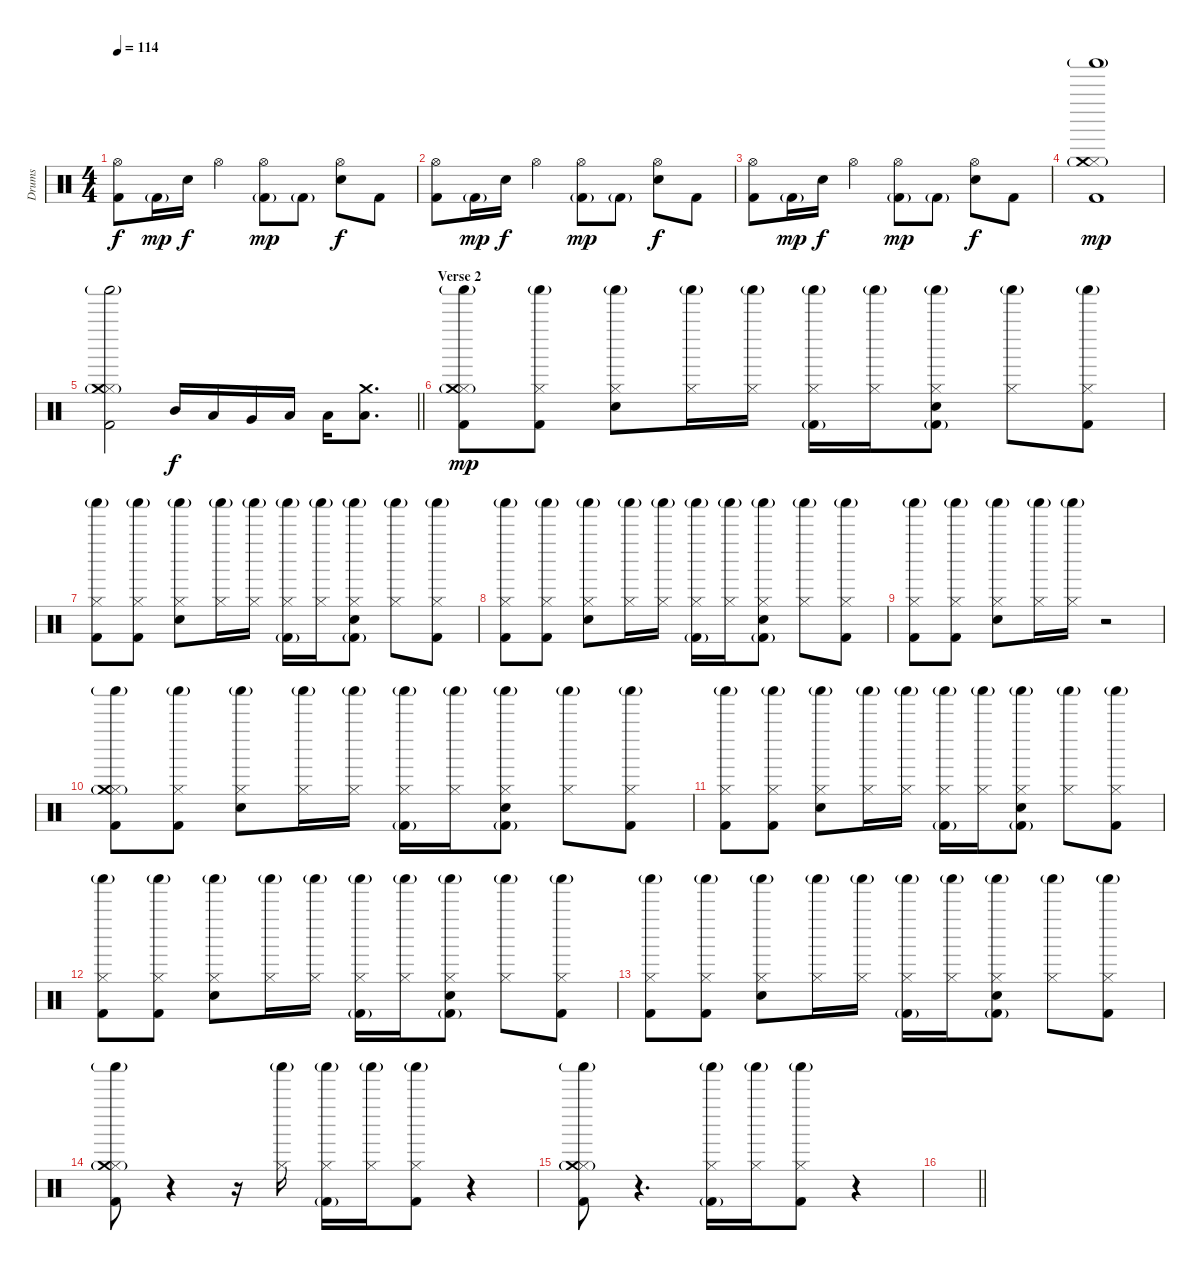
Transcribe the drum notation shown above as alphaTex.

\track ("Drums" "Drums") {instrument percussion}
\staff {score}
\articulation defaults
\ts (4 4)
\tempo 114
\clef neutral
\ks c
("Hi-Hat (open)" "Kick (hit) 2").8{dy f} "Kick (hit) 2"{g}.16{dy mp} "Electric Snare (hit)".16{dy f} "Hi-Hat (open)".4 ("Hi-Hat (open)" "Kick (hit) 2"{g}).8{dy mp} "Kick (hit) 2"{g}.8 ("Hi-Hat (open)" "Electric Snare (hit)").8{dy f} "Kick (hit) 2".8 |
("Hi-Hat (open)" "Kick (hit) 2").8 "Kick (hit) 2"{g}.16{dy mp} "Electric Snare (hit)".16{dy f} "Hi-Hat (open)".4 ("Hi-Hat (open)" "Kick (hit) 2"{g}).8{dy mp} "Kick (hit) 2"{g}.8 ("Hi-Hat (open)" "Electric Snare (hit)").8{dy f} "Kick (hit) 2".8 |
("Hi-Hat (open)" "Kick (hit) 2").8 "Kick (hit) 2"{g}.16{dy mp} "Electric Snare (hit)".16{dy f} "Hi-Hat (open)".4 ("Hi-Hat (open)" "Kick (hit) 2"{g}).8{dy mp} "Kick (hit) 2"{g}.8 ("Hi-Hat (open)" "Electric Snare (hit)").8{dy f} "Kick (hit) 2".8 |
("Hi-Hat (closed)" "Shaker (hit)"{g} "Crash medium (hit)"{g} "Kick (hit) 2").1{dy mp} |
\barLineRight lightlight
("Hi-Hat (closed)" "Shaker (hit)"{g} "Crash medium (hit)"{g} "Kick (hit) 2").2 "Mid Tom (hit)".16{dy f} "Low Tom (hit)".16 "Very Low Tom (hit)".16 "Low Floor Tom (hit)".16 "Low Floor Tom (hit)".16 ("Crash medium (hit)" "Low Tom (hit)").8{d} |
\section ("" "Verse 2")
("Hi-Hat (closed)" "Shaker (hit)"{g} "Crash medium (hit)"{g} "Kick (hit) 2").8{dy mp} ("Hi-Hat (closed)" "Shaker (hit)"{g} "Kick (hit) 2").8 ("Hi-Hat (closed)" "Shaker (hit)"{g} "Electric Snare (hit)").8 ("Hi-Hat (closed)" "Shaker (hit)"{g}).16 ("Hi-Hat (closed)" "Shaker (hit)"{g}).16 ("Hi-Hat (closed)" "Shaker (hit)"{g} "Kick (hit) 2"{g}).16 ("Hi-Hat (closed)" "Shaker (hit)"{g}).16 ("Hi-Hat (closed)" "Shaker (hit)"{g} "Electric Snare (hit)" "Kick (hit) 2"{g}).8 ("Hi-Hat (closed)" "Shaker (hit)"{g}).8 ("Hi-Hat (closed)" "Shaker (hit)"{g} "Kick (hit) 2").8 |
("Hi-Hat (closed)" "Shaker (hit)"{g} "Kick (hit) 2").8 ("Hi-Hat (closed)" "Shaker (hit)"{g} "Kick (hit) 2").8 ("Hi-Hat (closed)" "Shaker (hit)"{g} "Electric Snare (hit)").8 ("Hi-Hat (closed)" "Shaker (hit)"{g}).16 ("Hi-Hat (closed)" "Shaker (hit)"{g}).16 ("Hi-Hat (closed)" "Shaker (hit)"{g} "Kick (hit) 2"{g}).16 ("Hi-Hat (closed)" "Shaker (hit)"{g}).16 ("Hi-Hat (closed)" "Shaker (hit)"{g} "Electric Snare (hit)" "Kick (hit) 2"{g}).8 ("Hi-Hat (closed)" "Shaker (hit)"{g}).8 ("Hi-Hat (closed)" "Shaker (hit)"{g} "Kick (hit) 2").8 |
("Hi-Hat (closed)" "Shaker (hit)"{g} "Kick (hit) 2").8 ("Hi-Hat (closed)" "Shaker (hit)"{g} "Kick (hit) 2").8 ("Hi-Hat (closed)" "Shaker (hit)"{g} "Electric Snare (hit)").8 ("Hi-Hat (closed)" "Shaker (hit)"{g}).16 ("Hi-Hat (closed)" "Shaker (hit)"{g}).16 ("Hi-Hat (closed)" "Shaker (hit)"{g} "Kick (hit) 2"{g}).16 ("Hi-Hat (closed)" "Shaker (hit)"{g}).16 ("Hi-Hat (closed)" "Shaker (hit)"{g} "Electric Snare (hit)" "Kick (hit) 2"{g}).8 ("Hi-Hat (closed)" "Shaker (hit)"{g}).8 ("Hi-Hat (closed)" "Shaker (hit)"{g} "Kick (hit) 2").8 |
("Hi-Hat (closed)" "Shaker (hit)"{g} "Kick (hit) 2").8 ("Hi-Hat (closed)" "Shaker (hit)"{g} "Kick (hit) 2").8 ("Hi-Hat (closed)" "Shaker (hit)"{g} "Electric Snare (hit)").8 ("Hi-Hat (closed)" "Shaker (hit)"{g}).16 ("Hi-Hat (closed)" "Shaker (hit)"{g}).16 r.2 |
("Hi-Hat (closed)" "Shaker (hit)"{g} "Crash medium (hit)"{g} "Kick (hit) 2").8 ("Hi-Hat (closed)" "Shaker (hit)"{g} "Kick (hit) 2").8 ("Hi-Hat (closed)" "Shaker (hit)"{g} "Electric Snare (hit)").8 ("Hi-Hat (closed)" "Shaker (hit)"{g}).16 ("Hi-Hat (closed)" "Shaker (hit)"{g}).16 ("Hi-Hat (closed)" "Shaker (hit)"{g} "Kick (hit) 2"{g}).16 ("Hi-Hat (closed)" "Shaker (hit)"{g}).16 ("Hi-Hat (closed)" "Shaker (hit)"{g} "Electric Snare (hit)" "Kick (hit) 2"{g}).8 ("Hi-Hat (closed)" "Shaker (hit)"{g}).8 ("Hi-Hat (closed)" "Shaker (hit)"{g} "Kick (hit) 2").8 |
("Hi-Hat (closed)" "Shaker (hit)"{g} "Kick (hit) 2").8 ("Hi-Hat (closed)" "Shaker (hit)"{g} "Kick (hit) 2").8 ("Hi-Hat (closed)" "Shaker (hit)"{g} "Electric Snare (hit)").8 ("Hi-Hat (closed)" "Shaker (hit)"{g}).16 ("Hi-Hat (closed)" "Shaker (hit)"{g}).16 ("Hi-Hat (closed)" "Shaker (hit)"{g} "Kick (hit) 2"{g}).16 ("Hi-Hat (closed)" "Shaker (hit)"{g}).16 ("Hi-Hat (closed)" "Shaker (hit)"{g} "Electric Snare (hit)" "Kick (hit) 2"{g}).8 ("Hi-Hat (closed)" "Shaker (hit)"{g}).8 ("Hi-Hat (closed)" "Shaker (hit)"{g} "Kick (hit) 2").8 |
("Hi-Hat (closed)" "Shaker (hit)"{g} "Kick (hit) 2").8 ("Hi-Hat (closed)" "Shaker (hit)"{g} "Kick (hit) 2").8 ("Hi-Hat (closed)" "Shaker (hit)"{g} "Electric Snare (hit)").8 ("Hi-Hat (closed)" "Shaker (hit)"{g}).16 ("Hi-Hat (closed)" "Shaker (hit)"{g}).16 ("Hi-Hat (closed)" "Shaker (hit)"{g} "Kick (hit) 2"{g}).16 ("Hi-Hat (closed)" "Shaker (hit)"{g}).16 ("Hi-Hat (closed)" "Shaker (hit)"{g} "Electric Snare (hit)" "Kick (hit) 2"{g}).8 ("Hi-Hat (closed)" "Shaker (hit)"{g}).8 ("Hi-Hat (closed)" "Shaker (hit)"{g} "Kick (hit) 2").8 |
("Hi-Hat (closed)" "Shaker (hit)"{g} "Kick (hit) 2").8 ("Hi-Hat (closed)" "Shaker (hit)"{g} "Kick (hit) 2").8 ("Hi-Hat (closed)" "Shaker (hit)"{g} "Electric Snare (hit)").8 ("Hi-Hat (closed)" "Shaker (hit)"{g}).16 ("Hi-Hat (closed)" "Shaker (hit)"{g}).16 ("Hi-Hat (closed)" "Shaker (hit)"{g} "Kick (hit) 2"{g}).16 ("Hi-Hat (closed)" "Shaker (hit)"{g}).16 ("Hi-Hat (closed)" "Shaker (hit)"{g} "Electric Snare (hit)" "Kick (hit) 2"{g}).8 ("Hi-Hat (closed)" "Shaker (hit)"{g}).8 ("Hi-Hat (closed)" "Shaker (hit)"{g} "Kick (hit) 2").8 |
("Hi-Hat (closed)" "Shaker (hit)"{g} "Crash medium (hit)"{g} "Kick (hit) 2").8 r.4 r.16 ("Hi-Hat (closed)" "Shaker (hit)"{g}).16 ("Hi-Hat (closed)" "Shaker (hit)"{g} "Kick (hit) 2"{g}).16 ("Hi-Hat (closed)" "Shaker (hit)"{g}).16 ("Hi-Hat (closed)" "Shaker (hit)"{g} "Kick (hit) 2").8 r.4 |
("Hi-Hat (closed)" "Shaker (hit)"{g} "Crash medium (hit)"{g} "Kick (hit) 2").8 r.4{d} ("Hi-Hat (closed)" "Shaker (hit)"{g} "Kick (hit) 2"{g}).16 ("Hi-Hat (closed)" "Shaker (hit)"{g}).16 ("Hi-Hat (closed)" "Shaker (hit)"{g} "Kick (hit) 2").8 r.4 |
\barLineRight lightlight
